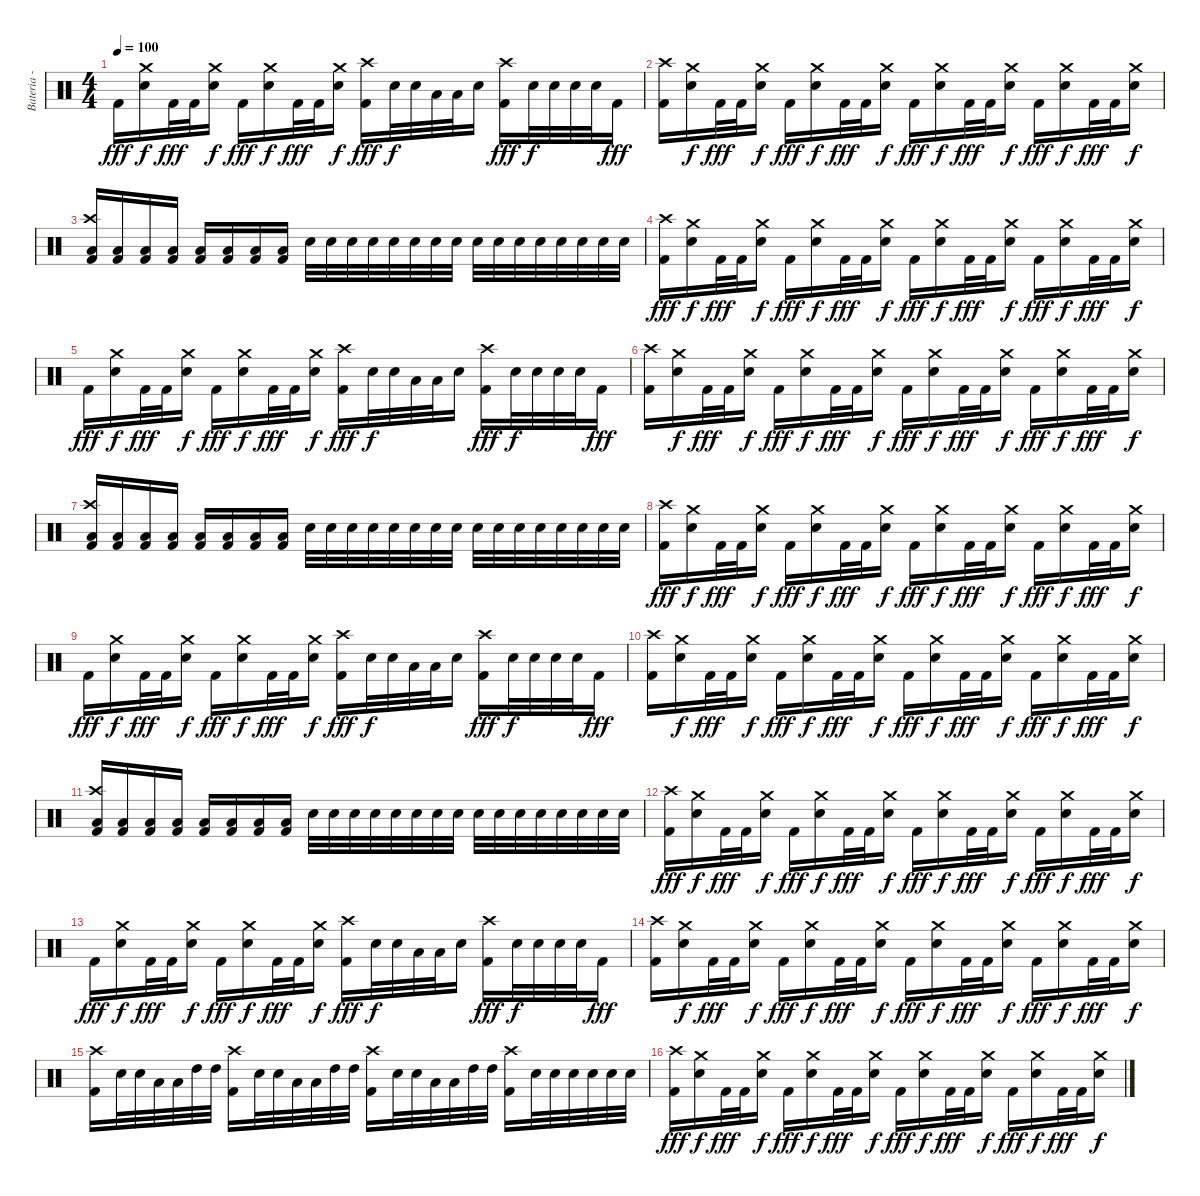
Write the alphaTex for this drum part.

\track ("Bateria - Drums" "Bateria - ") {instrument percussion}
\staff {score}
\articulation defaults
\ts (4 4)
\tempo 100
\clef neutral
\ks c "Kick (hit) 2".16{dy fff}
("Crash medium (hit)" "Electric Snare (hit)").16{dy f} "Kick (hit) 2".32{dy fff} "Kick (hit) 2".32 ("Crash medium (hit)" "Electric Snare (hit)").16{dy f} "Kick (hit) 2".16{dy fff} ("Crash medium (hit)" "Electric Snare (hit)").16{dy f} "Kick (hit) 2".32{dy fff} "Kick (hit) 2".32 ("Crash medium (hit)" "Electric Snare (hit)").16{dy f} ("Crash high (hit)" "Kick (hit) 2").16{dy fff} "Electric Snare (hit)".32{dy f} "Electric Snare (hit)".32 "Low Tom (hit)".32 "Low Tom (hit)".32 "Electric Snare (hit)".16 ("Crash high (hit)" "Kick (hit) 2").16{dy fff} "Electric Snare (hit)".32{dy f} "Electric Snare (hit)".32 "Electric Snare (hit)".32 "Electric Snare (hit)".32 "Kick (hit) 2".16{dy fff} |
("Crash high (hit)" "Kick (hit) 2").16 ("Crash medium (hit)" "Electric Snare (hit)").16{dy f} "Kick (hit) 2".32{dy fff} "Kick (hit) 2".32 ("Crash medium (hit)" "Electric Snare (hit)").16{dy f} "Kick (hit) 2".16{dy fff} ("Crash medium (hit)" "Electric Snare (hit)").16{dy f} "Kick (hit) 2".32{dy fff} "Kick (hit) 2".32 ("Crash medium (hit)" "Electric Snare (hit)").16{dy f} "Kick (hit) 2".16{dy fff} ("Crash medium (hit)" "Electric Snare (hit)").16{dy f} "Kick (hit) 2".32{dy fff} "Kick (hit) 2".32 ("Crash medium (hit)" "Electric Snare (hit)").16{dy f} "Kick (hit) 2".16{dy fff} ("Crash medium (hit)" "Electric Snare (hit)").16{dy f} "Kick (hit) 2".32{dy fff} "Kick (hit) 2".32 ("Crash medium (hit)" "Electric Snare (hit)").16{dy f} |
("Crash high (hit)" "Low Tom (hit)" "Kick (hit) 2").16 ("Low Tom (hit)" "Kick (hit) 2").16 ("Low Tom (hit)" "Kick (hit) 2").16 ("Low Tom (hit)" "Kick (hit) 2").16 ("Low Tom (hit)" "Kick (hit) 2").16 ("Low Tom (hit)" "Kick (hit) 2").16 ("Low Tom (hit)" "Kick (hit) 2").16 ("Low Tom (hit)" "Kick (hit) 2").16 "Electric Snare (hit)".32 "Electric Snare (hit)".32 "Electric Snare (hit)".32 "Electric Snare (hit)".32 "Electric Snare (hit)".32 "Electric Snare (hit)".32 "Electric Snare (hit)".32 "Electric Snare (hit)".32 "Electric Snare (hit)".32 "Electric Snare (hit)".32 "Electric Snare (hit)".32 "Electric Snare (hit)".32 "Electric Snare (hit)".32 "Electric Snare (hit)".32 "Electric Snare (hit)".32 "Electric Snare (hit)".32 |
("Crash high (hit)" "Kick (hit) 2").16{dy fff} ("Crash medium (hit)" "Electric Snare (hit)").16{dy f} "Kick (hit) 2".32{dy fff} "Kick (hit) 2".32 ("Crash medium (hit)" "Electric Snare (hit)").16{dy f} "Kick (hit) 2".16{dy fff} ("Crash medium (hit)" "Electric Snare (hit)").16{dy f} "Kick (hit) 2".32{dy fff} "Kick (hit) 2".32 ("Crash medium (hit)" "Electric Snare (hit)").16{dy f} "Kick (hit) 2".16{dy fff} ("Crash medium (hit)" "Electric Snare (hit)").16{dy f} "Kick (hit) 2".32{dy fff} "Kick (hit) 2".32 ("Crash medium (hit)" "Electric Snare (hit)").16{dy f} "Kick (hit) 2".16{dy fff} ("Crash medium (hit)" "Electric Snare (hit)").16{dy f} "Kick (hit) 2".32{dy fff} "Kick (hit) 2".32 ("Crash medium (hit)" "Electric Snare (hit)").16{dy f} |
"Kick (hit) 2".16{dy fff} ("Crash medium (hit)" "Electric Snare (hit)").16{dy f} "Kick (hit) 2".32{dy fff} "Kick (hit) 2".32 ("Crash medium (hit)" "Electric Snare (hit)").16{dy f} "Kick (hit) 2".16{dy fff} ("Crash medium (hit)" "Electric Snare (hit)").16{dy f} "Kick (hit) 2".32{dy fff} "Kick (hit) 2".32 ("Crash medium (hit)" "Electric Snare (hit)").16{dy f} ("Crash high (hit)" "Kick (hit) 2").16{dy fff} "Electric Snare (hit)".32{dy f} "Electric Snare (hit)".32 "Low Tom (hit)".32 "Low Tom (hit)".32 "Electric Snare (hit)".16 ("Crash high (hit)" "Kick (hit) 2").16{dy fff} "Electric Snare (hit)".32{dy f} "Electric Snare (hit)".32 "Electric Snare (hit)".32 "Electric Snare (hit)".32 "Kick (hit) 2".16{dy fff} |
("Crash high (hit)" "Kick (hit) 2").16 ("Crash medium (hit)" "Electric Snare (hit)").16{dy f} "Kick (hit) 2".32{dy fff} "Kick (hit) 2".32 ("Crash medium (hit)" "Electric Snare (hit)").16{dy f} "Kick (hit) 2".16{dy fff} ("Crash medium (hit)" "Electric Snare (hit)").16{dy f} "Kick (hit) 2".32{dy fff} "Kick (hit) 2".32 ("Crash medium (hit)" "Electric Snare (hit)").16{dy f} "Kick (hit) 2".16{dy fff} ("Crash medium (hit)" "Electric Snare (hit)").16{dy f} "Kick (hit) 2".32{dy fff} "Kick (hit) 2".32 ("Crash medium (hit)" "Electric Snare (hit)").16{dy f} "Kick (hit) 2".16{dy fff} ("Crash medium (hit)" "Electric Snare (hit)").16{dy f} "Kick (hit) 2".32{dy fff} "Kick (hit) 2".32 ("Crash medium (hit)" "Electric Snare (hit)").16{dy f} |
("Crash high (hit)" "Low Tom (hit)" "Kick (hit) 2").16 ("Low Tom (hit)" "Kick (hit) 2").16 ("Low Tom (hit)" "Kick (hit) 2").16 ("Low Tom (hit)" "Kick (hit) 2").16 ("Low Tom (hit)" "Kick (hit) 2").16 ("Low Tom (hit)" "Kick (hit) 2").16 ("Low Tom (hit)" "Kick (hit) 2").16 ("Low Tom (hit)" "Kick (hit) 2").16 "Electric Snare (hit)".32 "Electric Snare (hit)".32 "Electric Snare (hit)".32 "Electric Snare (hit)".32 "Electric Snare (hit)".32 "Electric Snare (hit)".32 "Electric Snare (hit)".32 "Electric Snare (hit)".32 "Electric Snare (hit)".32 "Electric Snare (hit)".32 "Electric Snare (hit)".32 "Electric Snare (hit)".32 "Electric Snare (hit)".32 "Electric Snare (hit)".32 "Electric Snare (hit)".32 "Electric Snare (hit)".32 |
("Crash high (hit)" "Kick (hit) 2").16{dy fff} ("Crash medium (hit)" "Electric Snare (hit)").16{dy f} "Kick (hit) 2".32{dy fff} "Kick (hit) 2".32 ("Crash medium (hit)" "Electric Snare (hit)").16{dy f} "Kick (hit) 2".16{dy fff} ("Crash medium (hit)" "Electric Snare (hit)").16{dy f} "Kick (hit) 2".32{dy fff} "Kick (hit) 2".32 ("Crash medium (hit)" "Electric Snare (hit)").16{dy f} "Kick (hit) 2".16{dy fff} ("Crash medium (hit)" "Electric Snare (hit)").16{dy f} "Kick (hit) 2".32{dy fff} "Kick (hit) 2".32 ("Crash medium (hit)" "Electric Snare (hit)").16{dy f} "Kick (hit) 2".16{dy fff} ("Crash medium (hit)" "Electric Snare (hit)").16{dy f} "Kick (hit) 2".32{dy fff} "Kick (hit) 2".32 ("Crash medium (hit)" "Electric Snare (hit)").16{dy f} |
"Kick (hit) 2".16{dy fff} ("Crash medium (hit)" "Electric Snare (hit)").16{dy f} "Kick (hit) 2".32{dy fff} "Kick (hit) 2".32 ("Crash medium (hit)" "Electric Snare (hit)").16{dy f} "Kick (hit) 2".16{dy fff} ("Crash medium (hit)" "Electric Snare (hit)").16{dy f} "Kick (hit) 2".32{dy fff} "Kick (hit) 2".32 ("Crash medium (hit)" "Electric Snare (hit)").16{dy f} ("Crash high (hit)" "Kick (hit) 2").16{dy fff} "Electric Snare (hit)".32{dy f} "Electric Snare (hit)".32 "Low Tom (hit)".32 "Low Tom (hit)".32 "Electric Snare (hit)".16 ("Crash high (hit)" "Kick (hit) 2").16{dy fff} "Electric Snare (hit)".32{dy f} "Electric Snare (hit)".32 "Electric Snare (hit)".32 "Electric Snare (hit)".32 "Kick (hit) 2".16{dy fff} |
("Crash high (hit)" "Kick (hit) 2").16 ("Crash medium (hit)" "Electric Snare (hit)").16{dy f} "Kick (hit) 2".32{dy fff} "Kick (hit) 2".32 ("Crash medium (hit)" "Electric Snare (hit)").16{dy f} "Kick (hit) 2".16{dy fff} ("Crash medium (hit)" "Electric Snare (hit)").16{dy f} "Kick (hit) 2".32{dy fff} "Kick (hit) 2".32 ("Crash medium (hit)" "Electric Snare (hit)").16{dy f} "Kick (hit) 2".16{dy fff} ("Crash medium (hit)" "Electric Snare (hit)").16{dy f} "Kick (hit) 2".32{dy fff} "Kick (hit) 2".32 ("Crash medium (hit)" "Electric Snare (hit)").16{dy f} "Kick (hit) 2".16{dy fff} ("Crash medium (hit)" "Electric Snare (hit)").16{dy f} "Kick (hit) 2".32{dy fff} "Kick (hit) 2".32 ("Crash medium (hit)" "Electric Snare (hit)").16{dy f} |
("Crash high (hit)" "Low Tom (hit)" "Kick (hit) 2").16 ("Low Tom (hit)" "Kick (hit) 2").16 ("Low Tom (hit)" "Kick (hit) 2").16 ("Low Tom (hit)" "Kick (hit) 2").16 ("Low Tom (hit)" "Kick (hit) 2").16 ("Low Tom (hit)" "Kick (hit) 2").16 ("Low Tom (hit)" "Kick (hit) 2").16 ("Low Tom (hit)" "Kick (hit) 2").16 "Electric Snare (hit)".32 "Electric Snare (hit)".32 "Electric Snare (hit)".32 "Electric Snare (hit)".32 "Electric Snare (hit)".32 "Electric Snare (hit)".32 "Electric Snare (hit)".32 "Electric Snare (hit)".32 "Electric Snare (hit)".32 "Electric Snare (hit)".32 "Electric Snare (hit)".32 "Electric Snare (hit)".32 "Electric Snare (hit)".32 "Electric Snare (hit)".32 "Electric Snare (hit)".32 "Electric Snare (hit)".32 |
("Crash high (hit)" "Kick (hit) 2").16{dy fff} ("Crash medium (hit)" "Electric Snare (hit)").16{dy f} "Kick (hit) 2".32{dy fff} "Kick (hit) 2".32 ("Crash medium (hit)" "Electric Snare (hit)").16{dy f} "Kick (hit) 2".16{dy fff} ("Crash medium (hit)" "Electric Snare (hit)").16{dy f} "Kick (hit) 2".32{dy fff} "Kick (hit) 2".32 ("Crash medium (hit)" "Electric Snare (hit)").16{dy f} "Kick (hit) 2".16{dy fff} ("Crash medium (hit)" "Electric Snare (hit)").16{dy f} "Kick (hit) 2".32{dy fff} "Kick (hit) 2".32 ("Crash medium (hit)" "Electric Snare (hit)").16{dy f} "Kick (hit) 2".16{dy fff} ("Crash medium (hit)" "Electric Snare (hit)").16{dy f} "Kick (hit) 2".32{dy fff} "Kick (hit) 2".32 ("Crash medium (hit)" "Electric Snare (hit)").16{dy f} |
"Kick (hit) 2".16{dy fff} ("Crash medium (hit)" "Electric Snare (hit)").16{dy f} "Kick (hit) 2".32{dy fff} "Kick (hit) 2".32 ("Crash medium (hit)" "Electric Snare (hit)").16{dy f} "Kick (hit) 2".16{dy fff} ("Crash medium (hit)" "Electric Snare (hit)").16{dy f} "Kick (hit) 2".32{dy fff} "Kick (hit) 2".32 ("Crash medium (hit)" "Electric Snare (hit)").16{dy f} ("Crash high (hit)" "Kick (hit) 2").16{dy fff} "Electric Snare (hit)".32{dy f} "Electric Snare (hit)".32 "Low Tom (hit)".32 "Low Tom (hit)".32 "Electric Snare (hit)".16 ("Crash high (hit)" "Kick (hit) 2").16{dy fff} "Electric Snare (hit)".32{dy f} "Electric Snare (hit)".32 "Electric Snare (hit)".32 "Electric Snare (hit)".32 "Kick (hit) 2".16{dy fff} |
("Crash high (hit)" "Kick (hit) 2").16 ("Crash medium (hit)" "Electric Snare (hit)").16{dy f} "Kick (hit) 2".32{dy fff} "Kick (hit) 2".32 ("Crash medium (hit)" "Electric Snare (hit)").16{dy f} "Kick (hit) 2".16{dy fff} ("Crash medium (hit)" "Electric Snare (hit)").16{dy f} "Kick (hit) 2".32{dy fff} "Kick (hit) 2".32 ("Crash medium (hit)" "Electric Snare (hit)").16{dy f} "Kick (hit) 2".16{dy fff} ("Crash medium (hit)" "Electric Snare (hit)").16{dy f} "Kick (hit) 2".32{dy fff} "Kick (hit) 2".32 ("Crash medium (hit)" "Electric Snare (hit)").16{dy f} "Kick (hit) 2".16{dy fff} ("Crash medium (hit)" "Electric Snare (hit)").16{dy f} "Kick (hit) 2".32{dy fff} "Kick (hit) 2".32 ("Crash medium (hit)" "Electric Snare (hit)").16{dy f} |
("Crash high (hit)" "Kick (hit) 2").16 "Electric Snare (hit)".32 "Electric Snare (hit)".32 "Low Tom (hit)".32 "Low Tom (hit)".32 "High Tom (hit)".32 "High Tom (hit)".32 ("Crash high (hit)" "Kick (hit) 2").16 "Electric Snare (hit)".32 "Electric Snare (hit)".32 "Low Tom (hit)".32 "Low Tom (hit)".32 "High Tom (hit)".32 "High Tom (hit)".32 ("Crash high (hit)" "Kick (hit) 2").16 "Electric Snare (hit)".32 "Electric Snare (hit)".32 "Low Tom (hit)".32 "Low Tom (hit)".32 "High Tom (hit)".32 "High Tom (hit)".32 ("Crash high (hit)" "Kick (hit) 2").16 "Electric Snare (hit)".32 "Electric Snare (hit)".32 "Electric Snare (hit)".32 "Electric Snare (hit)".32 "Electric Snare (hit)".32 "Electric Snare (hit)".32 |
("Crash high (hit)" "Kick (hit) 2").16{dy fff} ("Crash medium (hit)" "Electric Snare (hit)").16{dy f} "Kick (hit) 2".32{dy fff} "Kick (hit) 2".32 ("Crash medium (hit)" "Electric Snare (hit)").16{dy f} "Kick (hit) 2".16{dy fff} ("Crash medium (hit)" "Electric Snare (hit)").16{dy f} "Kick (hit) 2".32{dy fff} "Kick (hit) 2".32 ("Crash medium (hit)" "Electric Snare (hit)").16{dy f} "Kick (hit) 2".16{dy fff} ("Crash medium (hit)" "Electric Snare (hit)").16{dy f} "Kick (hit) 2".32{dy fff} "Kick (hit) 2".32 ("Crash medium (hit)" "Electric Snare (hit)").16{dy f} "Kick (hit) 2".16{dy fff} ("Crash medium (hit)" "Electric Snare (hit)").16{dy f} "Kick (hit) 2".32{dy fff} "Kick (hit) 2".32 ("Crash medium (hit)" "Electric Snare (hit)").16{dy f}
